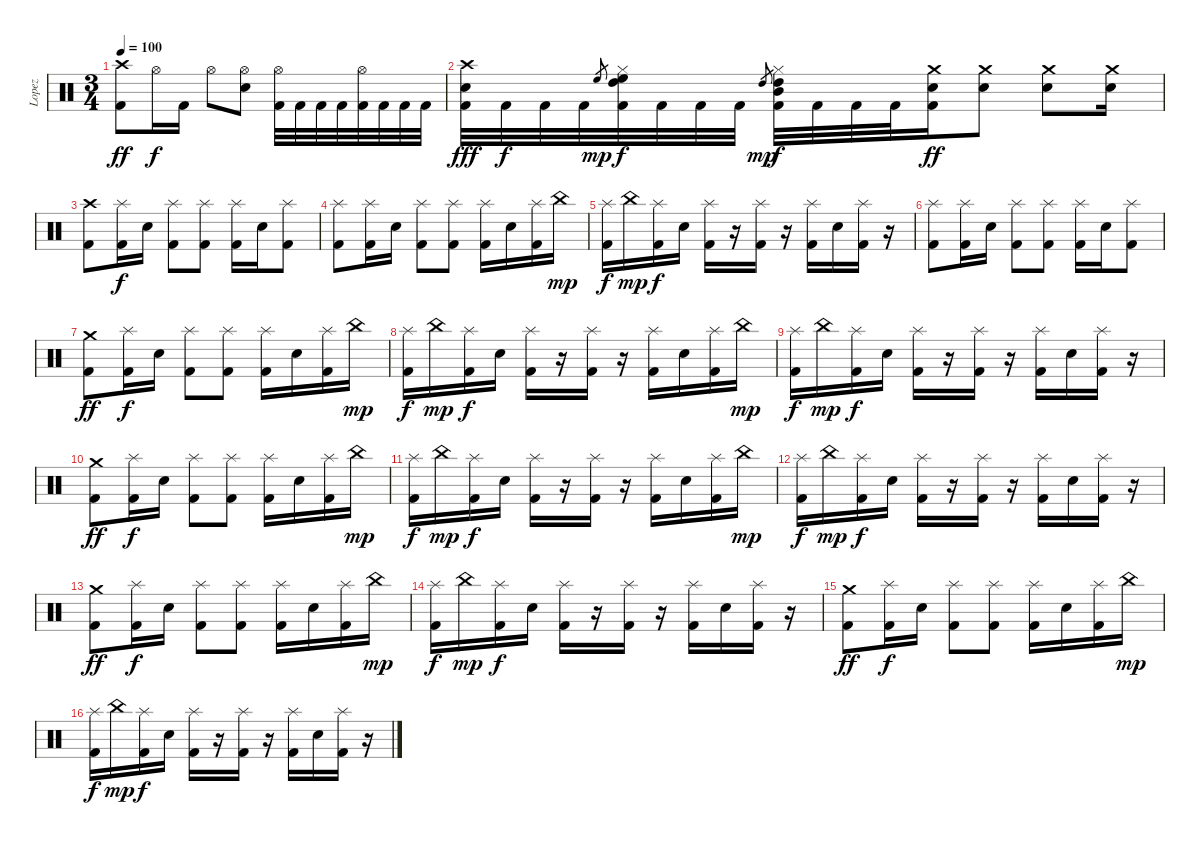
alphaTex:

\track ("Lopez" "Lopez") {instrument percussion}
\staff {score}
\articulation defaults
\ts (3 4)
\tempo 100
\clef neutral
\ks c
("Crash high (hit)" "Kick (hit) 2").8{dy ff} "Hi-Hat (open)".16{dy f} "Kick (hit) 2".16 "Hi-Hat (open)".8 ("Hi-Hat (open)" "Snare (hit) 2").8 ("Hi-Hat (open)" "Kick (hit) 2").32 "Kick (hit) 2".32 "Kick (hit) 2".32 "Kick (hit) 2".32 ("Hi-Hat (open)" "Kick (hit) 2").32 "Kick (hit) 2".32 "Kick (hit) 2".32 "Kick (hit) 2".32 |
("Crash high (hit)" "Snare (hit) 2" "Kick (hit) 2").32{dy fff} "Kick (hit) 2".32{dy f} "Kick (hit) 2".32 "Kick (hit) 2".32 "High Floor Tom (hit)".8{gr dy mp} ("Hi-Hat (closed)" "High Floor Tom (hit)" "High Tom (hit)" "Kick (hit) 2").32{dy f} "Kick (hit) 2".32 "Kick (hit) 2".32 "Kick (hit) 2".32 "High Tom (hit)".8{gr dy mp} ("Hi-Hat (closed)" "High Tom (hit)" "Mid Tom (hit)" "Kick (hit) 2").32{dy f} "Kick (hit) 2".32 "Kick (hit) 2".32 "Kick (hit) 2".32 ("Crash medium (hit)" "Snare (hit) 2" "Kick (hit) 2").16{dy ff} ("Crash medium (hit)" "Snare (hit) 2").8 ("Crash medium (hit)" "Snare (hit) 2").8 ("Crash medium (hit)" "Snare (hit) 2").16 |
("Crash high (hit)" "Kick (hit) 2").8 ("Splash (hit)" "Kick (hit) 2").16{dy f} "Snare (hit) 2".16 ("Splash (hit)" "Kick (hit) 2").8 ("Splash (hit)" "Kick (hit) 2").8 ("Splash (hit)" "Kick (hit) 2").16 "Snare (hit) 2".16 ("Splash (hit)" "Kick (hit) 2").8 |
("Splash (hit)" "Kick (hit) 2").8 ("Splash (hit)" "Kick (hit) 2").16 "Snare (hit) 2".16 ("Splash (hit)" "Kick (hit) 2").8 ("Splash (hit)" "Kick (hit) 2").8 ("Splash (hit)" "Kick (hit) 2").16 "Snare (hit) 2".16 ("Splash (hit)" "Kick (hit) 2").16 "China (hit)".16{dy mp} |
("Splash (hit)" "Kick (hit) 2").16{dy f} "China (hit)".16{dy mp} ("Splash (hit)" "Kick (hit) 2").16{dy f} "Snare (hit) 2".16 ("Splash (hit)" "Kick (hit) 2").16 r.16 ("Splash (hit)" "Kick (hit) 2").16 r.16 ("Splash (hit)" "Kick (hit) 2").16 "Snare (hit) 2".16 ("Splash (hit)" "Kick (hit) 2").16 r.16 |
("Splash (hit)" "Kick (hit) 2").8 ("Splash (hit)" "Kick (hit) 2").16 "Snare (hit) 2".16 ("Splash (hit)" "Kick (hit) 2").8 ("Splash (hit)" "Kick (hit) 2").8 ("Splash (hit)" "Kick (hit) 2").16 "Snare (hit) 2".16 ("Splash (hit)" "Kick (hit) 2").8 |
("Crash medium (hit)" "Kick (hit) 2").8{dy ff} ("Splash (hit)" "Kick (hit) 2").16{dy f} "Snare (hit) 2".16 ("Splash (hit)" "Kick (hit) 2").8 ("Splash (hit)" "Kick (hit) 2").8 ("Splash (hit)" "Kick (hit) 2").16 "Snare (hit) 2".16 ("Splash (hit)" "Kick (hit) 2").16 "China (hit)".16{dy mp} |
("Splash (hit)" "Kick (hit) 2").16{dy f} "China (hit)".16{dy mp} ("Splash (hit)" "Kick (hit) 2").16{dy f} "Snare (hit) 2".16 ("Splash (hit)" "Kick (hit) 2").16 r.16 ("Splash (hit)" "Kick (hit) 2").16 r.16 ("Splash (hit)" "Kick (hit) 2").16 "Snare (hit) 2".16 ("Splash (hit)" "Kick (hit) 2").16 "China (hit)".16{dy mp} |
("Splash (hit)" "Kick (hit) 2").16{dy f} "China (hit)".16{dy mp} ("Splash (hit)" "Kick (hit) 2").16{dy f} "Snare (hit) 2".16 ("Splash (hit)" "Kick (hit) 2").16 r.16 ("Splash (hit)" "Kick (hit) 2").16 r.16 ("Splash (hit)" "Kick (hit) 2").16 "Snare (hit) 2".16 ("Splash (hit)" "Kick (hit) 2").16 r.16 |
("Crash medium (hit)" "Kick (hit) 2").8{dy ff} ("Splash (hit)" "Kick (hit) 2").16{dy f} "Snare (hit) 2".16 ("Splash (hit)" "Kick (hit) 2").8 ("Splash (hit)" "Kick (hit) 2").8 ("Splash (hit)" "Kick (hit) 2").16 "Snare (hit) 2".16 ("Splash (hit)" "Kick (hit) 2").16 "China (hit)".16{dy mp} |
("Splash (hit)" "Kick (hit) 2").16{dy f} "China (hit)".16{dy mp} ("Splash (hit)" "Kick (hit) 2").16{dy f} "Snare (hit) 2".16 ("Splash (hit)" "Kick (hit) 2").16 r.16 ("Splash (hit)" "Kick (hit) 2").16 r.16 ("Splash (hit)" "Kick (hit) 2").16 "Snare (hit) 2".16 ("Splash (hit)" "Kick (hit) 2").16 "China (hit)".16{dy mp} |
("Splash (hit)" "Kick (hit) 2").16{dy f} "China (hit)".16{dy mp} ("Splash (hit)" "Kick (hit) 2").16{dy f} "Snare (hit) 2".16 ("Splash (hit)" "Kick (hit) 2").16 r.16 ("Splash (hit)" "Kick (hit) 2").16 r.16 ("Splash (hit)" "Kick (hit) 2").16 "Snare (hit) 2".16 ("Splash (hit)" "Kick (hit) 2").16 r.16 |
("Crash medium (hit)" "Kick (hit) 2").8{dy ff} ("Splash (hit)" "Kick (hit) 2").16{dy f} "Snare (hit) 2".16 ("Splash (hit)" "Kick (hit) 2").8 ("Splash (hit)" "Kick (hit) 2").8 ("Splash (hit)" "Kick (hit) 2").16 "Snare (hit) 2".16 ("Splash (hit)" "Kick (hit) 2").16 "China (hit)".16{dy mp} |
("Splash (hit)" "Kick (hit) 2").16{dy f} "China (hit)".16{dy mp} ("Splash (hit)" "Kick (hit) 2").16{dy f} "Snare (hit) 2".16 ("Splash (hit)" "Kick (hit) 2").16 r.16 ("Splash (hit)" "Kick (hit) 2").16 r.16 ("Splash (hit)" "Kick (hit) 2").16 "Snare (hit) 2".16 ("Splash (hit)" "Kick (hit) 2").16 r.16 |
("Crash medium (hit)" "Kick (hit) 2").8{dy ff} ("Splash (hit)" "Kick (hit) 2").16{dy f} "Snare (hit) 2".16 ("Splash (hit)" "Kick (hit) 2").8 ("Splash (hit)" "Kick (hit) 2").8 ("Splash (hit)" "Kick (hit) 2").16 "Snare (hit) 2".16 ("Splash (hit)" "Kick (hit) 2").16 "China (hit)".16{dy mp} |
("Splash (hit)" "Kick (hit) 2").16{dy f} "China (hit)".16{dy mp} ("Splash (hit)" "Kick (hit) 2").16{dy f} "Snare (hit) 2".16 ("Splash (hit)" "Kick (hit) 2").16 r.16 ("Splash (hit)" "Kick (hit) 2").16 r.16 ("Splash (hit)" "Kick (hit) 2").16 "Snare (hit) 2".16 ("Splash (hit)" "Kick (hit) 2").16 r.16
